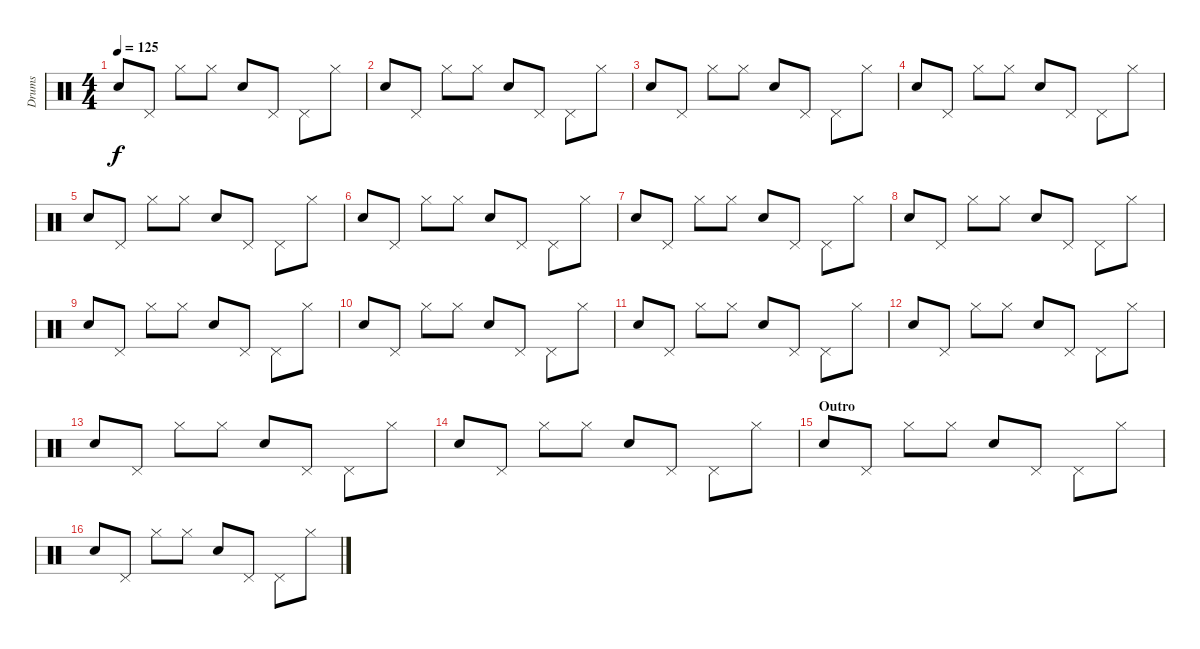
\track ("Drums" "Drums") {instrument percussion}
\staff {score}
\articulation defaults
\ts (4 4)
\tempo 125
\clef neutral
\ks c "Electric Snare (hit)".8{dy f} "Pedal Hi-Hat (hit)".8 "Hi-Hat (closed)".8 "Hi-Hat (closed)".8 "Electric Snare (hit)".8 "Pedal Hi-Hat (hit)".8 "Pedal Hi-Hat (hit)".8 "Hi-Hat (closed)".8
|
"Electric Snare (hit)".8 "Pedal Hi-Hat (hit)".8 "Hi-Hat (closed)".8 "Hi-Hat (closed)".8 "Electric Snare (hit)".8 "Pedal Hi-Hat (hit)".8 "Pedal Hi-Hat (hit)".8 "Hi-Hat (closed)".8 |
"Electric Snare (hit)".8 "Pedal Hi-Hat (hit)".8 "Hi-Hat (closed)".8 "Hi-Hat (closed)".8 "Electric Snare (hit)".8 "Pedal Hi-Hat (hit)".8 "Pedal Hi-Hat (hit)".8 "Hi-Hat (closed)".8 |
"Electric Snare (hit)".8 "Pedal Hi-Hat (hit)".8 "Hi-Hat (closed)".8 "Hi-Hat (closed)".8 "Electric Snare (hit)".8 "Pedal Hi-Hat (hit)".8 "Pedal Hi-Hat (hit)".8 "Hi-Hat (closed)".8 |
"Electric Snare (hit)".8 "Pedal Hi-Hat (hit)".8 "Hi-Hat (closed)".8 "Hi-Hat (closed)".8 "Electric Snare (hit)".8 "Pedal Hi-Hat (hit)".8 "Pedal Hi-Hat (hit)".8 "Hi-Hat (closed)".8 |
"Electric Snare (hit)".8 "Pedal Hi-Hat (hit)".8 "Hi-Hat (closed)".8 "Hi-Hat (closed)".8 "Electric Snare (hit)".8 "Pedal Hi-Hat (hit)".8 "Pedal Hi-Hat (hit)".8 "Hi-Hat (closed)".8 |
"Electric Snare (hit)".8 "Pedal Hi-Hat (hit)".8 "Hi-Hat (closed)".8 "Hi-Hat (closed)".8 "Electric Snare (hit)".8 "Pedal Hi-Hat (hit)".8 "Pedal Hi-Hat (hit)".8 "Hi-Hat (closed)".8 |
"Electric Snare (hit)".8 "Pedal Hi-Hat (hit)".8 "Hi-Hat (closed)".8 "Hi-Hat (closed)".8 "Electric Snare (hit)".8 "Pedal Hi-Hat (hit)".8 "Pedal Hi-Hat (hit)".8 "Hi-Hat (closed)".8 |
"Electric Snare (hit)".8 "Pedal Hi-Hat (hit)".8 "Hi-Hat (closed)".8 "Hi-Hat (closed)".8 "Electric Snare (hit)".8 "Pedal Hi-Hat (hit)".8 "Pedal Hi-Hat (hit)".8 "Hi-Hat (closed)".8 |
"Electric Snare (hit)".8 "Pedal Hi-Hat (hit)".8 "Hi-Hat (closed)".8 "Hi-Hat (closed)".8 "Electric Snare (hit)".8 "Pedal Hi-Hat (hit)".8 "Pedal Hi-Hat (hit)".8 "Hi-Hat (closed)".8 |
"Electric Snare (hit)".8 "Pedal Hi-Hat (hit)".8 "Hi-Hat (closed)".8 "Hi-Hat (closed)".8 "Electric Snare (hit)".8 "Pedal Hi-Hat (hit)".8 "Pedal Hi-Hat (hit)".8 "Hi-Hat (closed)".8 |
"Electric Snare (hit)".8 "Pedal Hi-Hat (hit)".8 "Hi-Hat (closed)".8 "Hi-Hat (closed)".8 "Electric Snare (hit)".8 "Pedal Hi-Hat (hit)".8 "Pedal Hi-Hat (hit)".8 "Hi-Hat (closed)".8 |
"Electric Snare (hit)".8 "Pedal Hi-Hat (hit)".8 "Hi-Hat (closed)".8 "Hi-Hat (closed)".8 "Electric Snare (hit)".8 "Pedal Hi-Hat (hit)".8 "Pedal Hi-Hat (hit)".8 "Hi-Hat (closed)".8 |
"Electric Snare (hit)".8 "Pedal Hi-Hat (hit)".8 "Hi-Hat (closed)".8 "Hi-Hat (closed)".8 "Electric Snare (hit)".8 "Pedal Hi-Hat (hit)".8 "Pedal Hi-Hat (hit)".8 "Hi-Hat (closed)".8 |
\section ("" "Outro")
"Electric Snare (hit)".8 "Pedal Hi-Hat (hit)".8 "Hi-Hat (closed)".8 "Hi-Hat (closed)".8 "Electric Snare (hit)".8 "Pedal Hi-Hat (hit)".8 "Pedal Hi-Hat (hit)".8 "Hi-Hat (closed)".8 |
"Electric Snare (hit)".8 "Pedal Hi-Hat (hit)".8 "Hi-Hat (closed)".8 "Hi-Hat (closed)".8 "Electric Snare (hit)".8 "Pedal Hi-Hat (hit)".8 "Pedal Hi-Hat (hit)".8 "Hi-Hat (closed)".8
